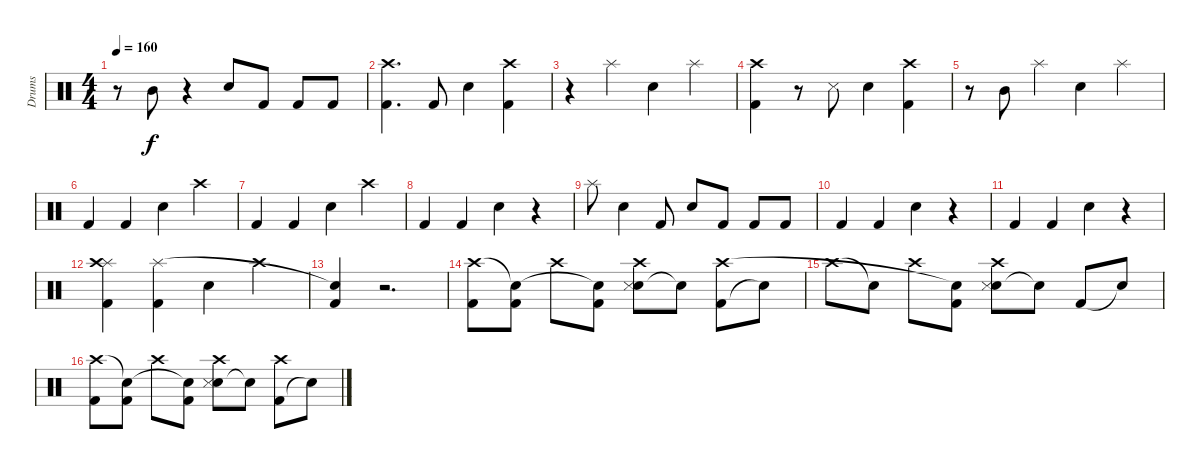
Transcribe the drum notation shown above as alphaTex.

\track ("Drums" "Drums") {instrument percussion}
\staff {score}
\articulation defaults
\ts (4 4)
\tempo 160
\clef neutral
\ks c
r.8{dy f} "Mid Tom (hit)".8 r.4 "Snare (hit) 2".8 "Kick (hit) 2".8 "Kick (hit) 2".8 "Kick (hit) 2".8 |
("Kick (hit) 2" "Crash high (hit)").4{d} "Kick (hit) 2".8 "Snare (hit) 2".4 ("Kick (hit) 2" "Crash high (hit)").4 |
r.4 "Splash (hit)".4 "Snare (hit) 2".4 "Splash (hit)".4 |
("Kick (hit) 2" "Crash high (hit)").4 r.8 "Snare (side stick) 3".8 "Snare (hit) 2".4 ("Kick (hit) 2" "Crash high (hit)").4 |
r.8 "Mid Tom (hit)".8 "Splash (hit)".4 "Snare (hit) 2".4 "Splash (hit)".4 |
"Kick (hit) 2".4 "Kick (hit) 2".4 "Snare (hit) 2".4 "Crash high (hit)".4 |
"Kick (hit) 2".4 "Kick (hit) 2".4 "Snare (hit) 2".4 "Crash high (hit)".4 |
"Kick (hit) 2".4 "Kick (hit) 2".4 "Snare (hit) 2".4 r.4 |
"Splash (hit)".8 "Snare (hit) 2".4 "Kick (hit) 2".8 "Snare (hit) 2".8 "Kick (hit) 2".8 "Kick (hit) 2".8 "Kick (hit) 2".8 |
"Kick (hit) 2".4 "Kick (hit) 2".4 "Snare (hit) 2".4 r.4 |
"Kick (hit) 2".4 "Kick (hit) 2".4 "Snare (hit) 2".4 r.4 |
("Kick (hit) 2" "Splash (hit)" "Crash high (hit)").4 ("Kick (hit) 2" "Splash (hit)").4 "Snare (hit) 2".4 "Crash high (hit)".4 |
("Kick (hit) 2" "Snare (hit)"{t}).4 r.2{d} |
("Kick (hit) 2" "Crash high (hit)").8 ("Kick (hit) 2" "Snare (hit)"{t}).8 "Crash high (hit)".8 ("Kick (hit) 2" "Snare (hit)"{t}).8 ("Snare (hit) 2" "Snare (side stick) 3" "Crash high (hit)").8 "Snare (hit)"{t}.8 ("Kick (hit) 2" "Crash high (hit)").8 "Snare (hit)"{t}.8 |
"Crash high (hit)".8 "Snare (hit)"{t}.8 "Crash high (hit)".8 ("Kick (hit) 2" "Snare (hit)"{t}).8 ("Snare (hit) 2" "Snare (side stick) 3" "Crash high (hit)").8 "Snare (hit)"{t}.8 "Kick (hit) 2".8 "Snare (hit)"{t}.8 |
("Kick (hit) 2" "Crash high (hit)").8 ("Kick (hit) 2" "Snare (hit)"{t}).8 "Crash high (hit)".8 ("Kick (hit) 2" "Snare (hit)"{t}).8 ("Snare (hit) 2" "Snare (side stick) 3" "Crash high (hit)").8 "Snare (hit)"{t}.8 ("Kick (hit) 2" "Crash high (hit)").8 "Snare (hit)"{t}.8
